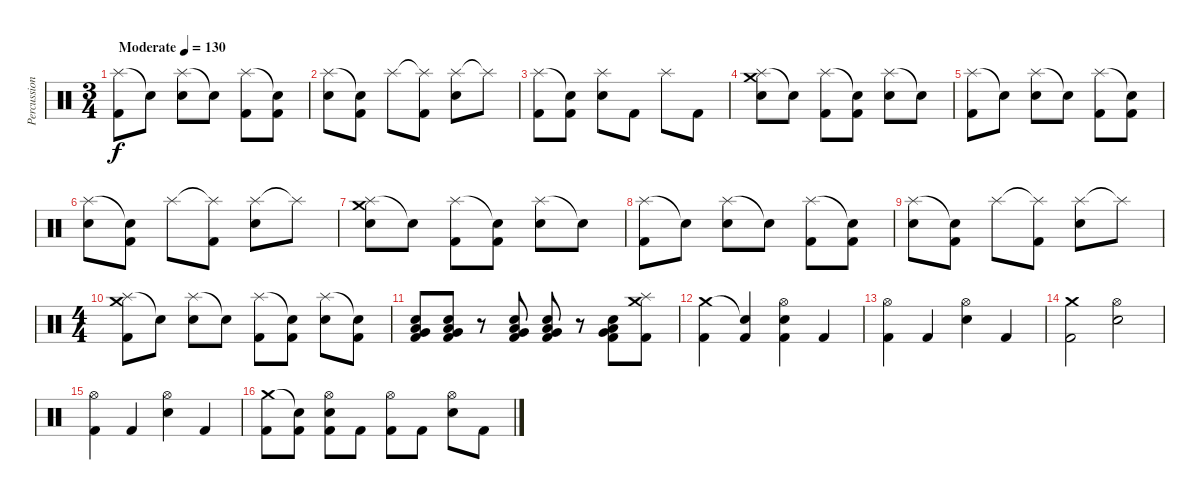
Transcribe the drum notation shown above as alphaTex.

\track ("Percussion" "Percussion") {instrument percussion}
\staff {score}
\articulation defaults
\ts (3 4)
\tempo (130 "Moderate")
\clef neutral
\ks c
("Splash (hit)" "Kick (hit) 2").8{dy f} "Snare (hit)"{t}.8 ("Splash (hit)" "Electric Snare (hit)").8 "Snare (hit)"{t}.8 ("Splash (hit)" "Kick (hit) 2").8 ("Snare (hit)"{t} "Kick (hit) 2").8 |
("Splash (hit)" "Electric Snare (hit)").8 ("Snare (hit)"{t} "Kick (hit) 2").8 "Splash (hit)".8 ("Splash (hit)"{t} "Kick (hit) 2").8 ("Splash (hit)" "Electric Snare (hit)").8 "Splash (hit)"{t}.8 |
("Splash (hit)" "Kick (hit) 2").8 ("Snare (hit)"{t} "Kick (hit) 2").8 ("Splash (hit)" "Electric Snare (hit)").8 "Kick (hit) 2".8 "Splash (hit)".8 "Kick (hit) 2".8 |
("Splash (hit)" "Crash medium (hit)" "Electric Snare (hit)").8 "Snare (hit)"{t}.8 ("Splash (hit)" "Kick (hit) 2").8 ("Snare (hit)"{t} "Kick (hit) 2").8 ("Splash (hit)" "Electric Snare (hit)").8 "Snare (hit)"{t}.8 |
("Splash (hit)" "Kick (hit) 2").8 "Snare (hit)"{t}.8 ("Splash (hit)" "Electric Snare (hit)").8 "Snare (hit)"{t}.8 ("Splash (hit)" "Kick (hit) 2").8 ("Snare (hit)"{t} "Kick (hit) 2").8 |
("Splash (hit)" "Electric Snare (hit)").8 ("Snare (hit)"{t} "Kick (hit) 2").8 "Splash (hit)".8 ("Splash (hit)"{t} "Kick (hit) 2").8 ("Splash (hit)" "Electric Snare (hit)").8 "Splash (hit)"{t}.8 |
("Splash (hit)" "Crash medium (hit)" "Electric Snare (hit)").8 "Snare (hit)"{t}.8 ("Splash (hit)" "Kick (hit) 2").8 ("Snare (hit)"{t} "Kick (hit) 2").8 ("Splash (hit)" "Electric Snare (hit)").8 "Snare (hit)"{t}.8 |
("Splash (hit)" "Kick (hit) 2").8 "Snare (hit)"{t}.8 ("Splash (hit)" "Electric Snare (hit)").8 "Snare (hit)"{t}.8 ("Splash (hit)" "Kick (hit) 2").8 ("Snare (hit)"{t} "Kick (hit) 2").8 |
("Splash (hit)" "Electric Snare (hit)").8 ("Snare (hit)"{t} "Kick (hit) 2").8 "Splash (hit)".8 ("Splash (hit)"{t} "Kick (hit) 2").8 ("Splash (hit)" "Electric Snare (hit)").8 "Splash (hit)"{t}.8 |
\ts (4 4)
("Splash (hit)" "Crash medium (hit)" "Kick (hit) 2").8 "Snare (hit)"{t}.8 ("Splash (hit)" "Electric Snare (hit)").8 "Snare (hit)"{t}.8 ("Splash (hit)" "Kick (hit) 2").8 ("Snare (hit)"{t} "Kick (hit) 2").8 ("Splash (hit)" "Electric Snare (hit)").8 ("Snare (hit)"{t} "Kick (hit) 2").8 |
("Electric Snare (hit)" "Low Floor Tom (hit)" "Very Low Tom (hit)" "Kick (hit) 2").8 ("Electric Snare (hit)" "Low Floor Tom (hit)" "Very Low Tom (hit)" "Kick (hit) 2").8 r.8 ("Electric Snare (hit)" "Low Floor Tom (hit)" "Very Low Tom (hit)" "Kick (hit) 2").8 ("Electric Snare (hit)" "Low Floor Tom (hit)" "Very Low Tom (hit)" "Kick (hit) 2").8 r.8 ("Electric Snare (hit)" "Low Floor Tom (hit)" "Very Low Tom (hit)" "Kick (hit) 2").8 ("Splash (hit)" "Crash medium (hit)" "Kick (hit) 2").8 |
("Crash medium (hit)" "Kick (hit) 2").4 ("Snare (hit)"{t} "Kick (hit) 2").4 ("Hi-Hat (open)" "Electric Snare (hit)" "Kick (hit) 2").4 "Kick (hit) 2".4 |
("Hi-Hat (open)" "Kick (hit) 2").4 "Kick (hit) 2".4 ("Hi-Hat (open)" "Electric Snare (hit)").4 "Kick (hit) 2".4 |
("Crash medium (hit)" "Kick (hit) 2").2 ("Hi-Hat (open)" "Electric Snare (hit)").2 |
("Hi-Hat (open)" "Kick (hit) 2").4 "Kick (hit) 2".4 ("Hi-Hat (open)" "Electric Snare (hit)").4 "Kick (hit) 2".4 |
("Crash medium (hit)" "Kick (hit) 2").8 ("Snare (hit)"{t} "Kick (hit) 2").8 ("Hi-Hat (open)" "Electric Snare (hit)" "Kick (hit) 2").8 "Kick (hit) 2".8 ("Hi-Hat (open)" "Kick (hit) 2").8 "Kick (hit) 2".8 ("Hi-Hat (open)" "Electric Snare (hit)").8 "Kick (hit) 2".8
